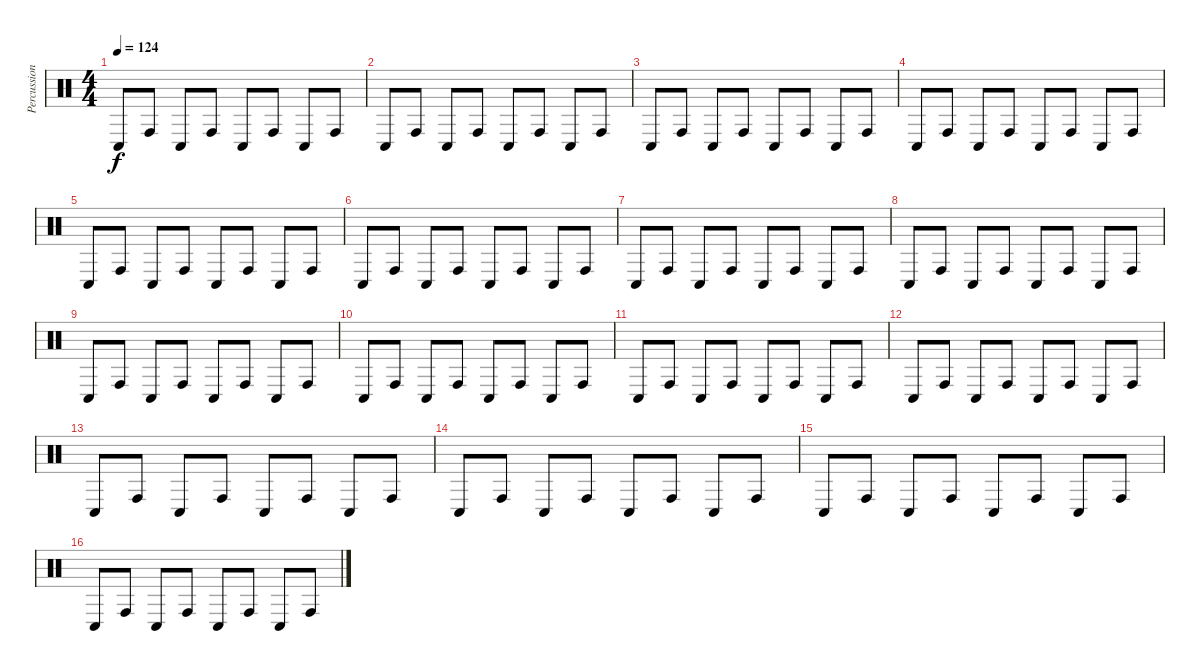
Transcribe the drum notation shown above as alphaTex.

\track ("Percussion" "Percussion") {instrument percussion}
\staff {score}
\articulation defaults
\ts (4 4)
\tempo 124
\clef neutral
\ks c "Conga low (hit)".8{dy f volume 6} "Conga high (hit)".8 "Conga low (hit)".8 "Conga high (hit)".8 "Conga low (hit)".8 "Conga high (hit)".8 "Conga low (hit)".8 "Conga high (hit)".8
|
"Conga low (hit)".8{volume 6} "Conga high (hit)".8 "Conga low (hit)".8 "Conga high (hit)".8 "Conga low (hit)".8 "Conga high (hit)".8 "Conga low (hit)".8 "Conga high (hit)".8 |
"Conga low (hit)".8{volume 6} "Conga high (hit)".8 "Conga low (hit)".8 "Conga high (hit)".8 "Conga low (hit)".8 "Conga high (hit)".8 "Conga low (hit)".8 "Conga high (hit)".8 |
"Conga low (hit)".8{volume 6} "Conga high (hit)".8 "Conga low (hit)".8 "Conga high (hit)".8 "Conga low (hit)".8 "Conga high (hit)".8 "Conga low (hit)".8 "Conga high (hit)".8 |
"Conga low (hit)".8{volume 6} "Conga high (hit)".8 "Conga low (hit)".8 "Conga high (hit)".8 "Conga low (hit)".8 "Conga high (hit)".8 "Conga low (hit)".8 "Conga high (hit)".8 |
"Conga low (hit)".8{volume 6} "Conga high (hit)".8 "Conga low (hit)".8 "Conga high (hit)".8 "Conga low (hit)".8 "Conga high (hit)".8 "Conga low (hit)".8 "Conga high (hit)".8 |
"Conga low (hit)".8{volume 6} "Conga high (hit)".8 "Conga low (hit)".8 "Conga high (hit)".8 "Conga low (hit)".8 "Conga high (hit)".8 "Conga low (hit)".8 "Conga high (hit)".8 |
"Conga low (hit)".8{volume 6} "Conga high (hit)".8 "Conga low (hit)".8 "Conga high (hit)".8 "Conga low (hit)".8 "Conga high (hit)".8 "Conga low (hit)".8 "Conga high (hit)".8 |
"Conga low (hit)".8{volume 6} "Conga high (hit)".8 "Conga low (hit)".8 "Conga high (hit)".8 "Conga low (hit)".8 "Conga high (hit)".8 "Conga low (hit)".8 "Conga high (hit)".8 |
"Conga low (hit)".8{volume 6} "Conga high (hit)".8 "Conga low (hit)".8 "Conga high (hit)".8 "Conga low (hit)".8 "Conga high (hit)".8 "Conga low (hit)".8 "Conga high (hit)".8 |
"Conga low (hit)".8{volume 6} "Conga high (hit)".8 "Conga low (hit)".8 "Conga high (hit)".8 "Conga low (hit)".8 "Conga high (hit)".8 "Conga low (hit)".8 "Conga high (hit)".8 |
"Conga low (hit)".8{volume 6} "Conga high (hit)".8 "Conga low (hit)".8 "Conga high (hit)".8 "Conga low (hit)".8 "Conga high (hit)".8 "Conga low (hit)".8 "Conga high (hit)".8 |
"Conga low (hit)".8{volume 6} "Conga high (hit)".8 "Conga low (hit)".8 "Conga high (hit)".8 "Conga low (hit)".8 "Conga high (hit)".8 "Conga low (hit)".8 "Conga high (hit)".8 |
"Conga low (hit)".8{volume 6} "Conga high (hit)".8 "Conga low (hit)".8 "Conga high (hit)".8 "Conga low (hit)".8 "Conga high (hit)".8 "Conga low (hit)".8 "Conga high (hit)".8 |
"Conga low (hit)".8{volume 6} "Conga high (hit)".8 "Conga low (hit)".8 "Conga high (hit)".8 "Conga low (hit)".8 "Conga high (hit)".8 "Conga low (hit)".8 "Conga high (hit)".8 |
"Conga low (hit)".8{volume 6} "Conga high (hit)".8 "Conga low (hit)".8 "Conga high (hit)".8 "Conga low (hit)".8 "Conga high (hit)".8 "Conga low (hit)".8 "Conga high (hit)".8
